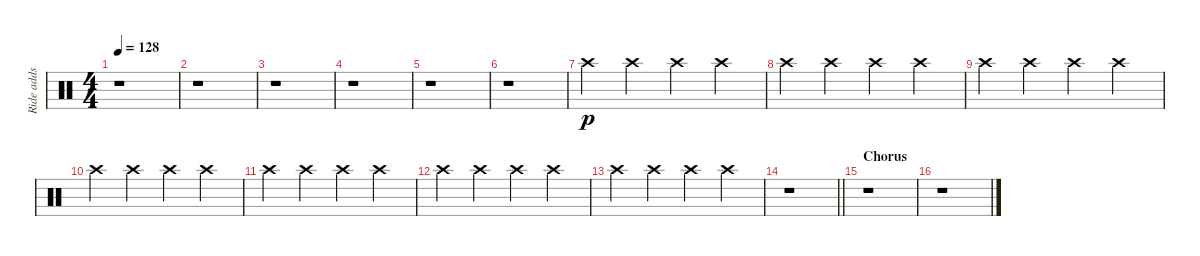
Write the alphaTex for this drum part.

\track ("Ride adds" "Ride adds") {instrument percussion}
\staff {score}
\articulation defaults
\ts (4 4)
\tempo 128
\clef neutral
\ks c
r.1{dy p} |
r.1 |
r.1 |
r.1 |
r.1 |
r.1 |
"Crash high (hit)".4 "Crash high (hit)".4 "Crash high (hit)".4 "Crash high (hit)".4 |
"Crash high (hit)".4 "Crash high (hit)".4 "Crash high (hit)".4 "Crash high (hit)".4 |
"Crash high (hit)".4 "Crash high (hit)".4 "Crash high (hit)".4 "Crash high (hit)".4 |
"Crash high (hit)".4 "Crash high (hit)".4 "Crash high (hit)".4 "Crash high (hit)".4 |
"Crash high (hit)".4 "Crash high (hit)".4 "Crash high (hit)".4 "Crash high (hit)".4 |
"Crash high (hit)".4 "Crash high (hit)".4 "Crash high (hit)".4 "Crash high (hit)".4 |
"Crash high (hit)".4 "Crash high (hit)".4 "Crash high (hit)".4 "Crash high (hit)".4 |
\barLineRight lightlight
r.1 |
\section ("" "Chorus")
r.1 |
r.1
